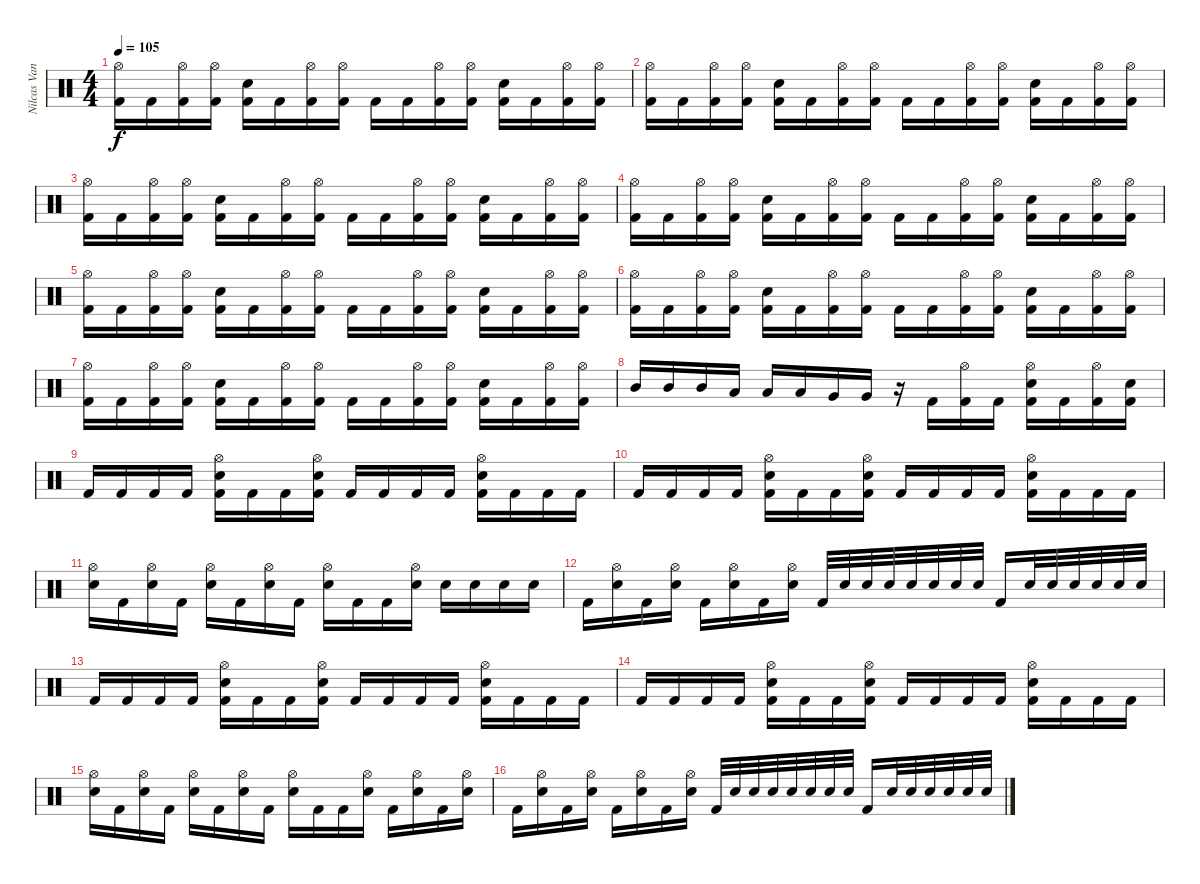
\track ("Nilcas Vant" "Nilcas Van") {instrument percussion}
\staff {score}
\articulation defaults
\ts (4 4)
\tempo 105
\clef neutral
\ks c
("Hi-Hat (open)" "Kick (hit) 2").16{dy f} "Kick (hit) 2".16 ("Hi-Hat (open)" "Kick (hit) 2").16 ("Hi-Hat (open)" "Kick (hit) 2").16 ("Electric Snare (hit)" "Kick (hit) 2").16 "Kick (hit) 2".16 ("Hi-Hat (open)" "Kick (hit) 2").16 ("Hi-Hat (open)" "Kick (hit) 2").16 "Kick (hit) 2".16 "Kick (hit) 2".16 ("Hi-Hat (open)" "Kick (hit) 2").16 ("Hi-Hat (open)" "Kick (hit) 2").16 ("Electric Snare (hit)" "Kick (hit) 2").16 "Kick (hit) 2".16 ("Hi-Hat (open)" "Kick (hit) 2").16 ("Hi-Hat (open)" "Kick (hit) 2").16 |
("Hi-Hat (open)" "Kick (hit) 2").16 "Kick (hit) 2".16 ("Hi-Hat (open)" "Kick (hit) 2").16 ("Hi-Hat (open)" "Kick (hit) 2").16 ("Electric Snare (hit)" "Kick (hit) 2").16 "Kick (hit) 2".16 ("Hi-Hat (open)" "Kick (hit) 2").16 ("Hi-Hat (open)" "Kick (hit) 2").16 "Kick (hit) 2".16 "Kick (hit) 2".16 ("Hi-Hat (open)" "Kick (hit) 2").16 ("Hi-Hat (open)" "Kick (hit) 2").16 ("Electric Snare (hit)" "Kick (hit) 2").16 "Kick (hit) 2".16 ("Hi-Hat (open)" "Kick (hit) 2").16 ("Hi-Hat (open)" "Kick (hit) 2").16 |
("Hi-Hat (open)" "Kick (hit) 2").16 "Kick (hit) 2".16 ("Hi-Hat (open)" "Kick (hit) 2").16 ("Hi-Hat (open)" "Kick (hit) 2").16 ("Electric Snare (hit)" "Kick (hit) 2").16 "Kick (hit) 2".16 ("Hi-Hat (open)" "Kick (hit) 2").16 ("Hi-Hat (open)" "Kick (hit) 2").16 "Kick (hit) 2".16 "Kick (hit) 2".16 ("Hi-Hat (open)" "Kick (hit) 2").16 ("Hi-Hat (open)" "Kick (hit) 2").16 ("Electric Snare (hit)" "Kick (hit) 2").16 "Kick (hit) 2".16 ("Hi-Hat (open)" "Kick (hit) 2").16 ("Hi-Hat (open)" "Kick (hit) 2").16 |
("Hi-Hat (open)" "Kick (hit) 2").16 "Kick (hit) 2".16 ("Hi-Hat (open)" "Kick (hit) 2").16 ("Hi-Hat (open)" "Kick (hit) 2").16 ("Electric Snare (hit)" "Kick (hit) 2").16 "Kick (hit) 2".16 ("Hi-Hat (open)" "Kick (hit) 2").16 ("Hi-Hat (open)" "Kick (hit) 2").16 "Kick (hit) 2".16 "Kick (hit) 2".16 ("Hi-Hat (open)" "Kick (hit) 2").16 ("Hi-Hat (open)" "Kick (hit) 2").16 ("Electric Snare (hit)" "Kick (hit) 2").16 "Kick (hit) 2".16 ("Hi-Hat (open)" "Kick (hit) 2").16 ("Hi-Hat (open)" "Kick (hit) 2").16 |
("Hi-Hat (open)" "Kick (hit) 2").16 "Kick (hit) 2".16 ("Hi-Hat (open)" "Kick (hit) 2").16 ("Hi-Hat (open)" "Kick (hit) 2").16 ("Electric Snare (hit)" "Kick (hit) 2").16 "Kick (hit) 2".16 ("Hi-Hat (open)" "Kick (hit) 2").16 ("Hi-Hat (open)" "Kick (hit) 2").16 "Kick (hit) 2".16 "Kick (hit) 2".16 ("Hi-Hat (open)" "Kick (hit) 2").16 ("Hi-Hat (open)" "Kick (hit) 2").16 ("Electric Snare (hit)" "Kick (hit) 2").16 "Kick (hit) 2".16 ("Hi-Hat (open)" "Kick (hit) 2").16 ("Hi-Hat (open)" "Kick (hit) 2").16 |
("Hi-Hat (open)" "Kick (hit) 2").16 "Kick (hit) 2".16 ("Hi-Hat (open)" "Kick (hit) 2").16 ("Hi-Hat (open)" "Kick (hit) 2").16 ("Electric Snare (hit)" "Kick (hit) 2").16 "Kick (hit) 2".16 ("Hi-Hat (open)" "Kick (hit) 2").16 ("Hi-Hat (open)" "Kick (hit) 2").16 "Kick (hit) 2".16 "Kick (hit) 2".16 ("Hi-Hat (open)" "Kick (hit) 2").16 ("Hi-Hat (open)" "Kick (hit) 2").16 ("Electric Snare (hit)" "Kick (hit) 2").16 "Kick (hit) 2".16 ("Hi-Hat (open)" "Kick (hit) 2").16 ("Hi-Hat (open)" "Kick (hit) 2").16 |
("Hi-Hat (open)" "Kick (hit) 2").16 "Kick (hit) 2".16 ("Hi-Hat (open)" "Kick (hit) 2").16 ("Hi-Hat (open)" "Kick (hit) 2").16 ("Electric Snare (hit)" "Kick (hit) 2").16 "Kick (hit) 2".16 ("Hi-Hat (open)" "Kick (hit) 2").16 ("Hi-Hat (open)" "Kick (hit) 2").16 "Kick (hit) 2".16 "Kick (hit) 2".16 ("Hi-Hat (open)" "Kick (hit) 2").16 ("Hi-Hat (open)" "Kick (hit) 2").16 ("Electric Snare (hit)" "Kick (hit) 2").16 "Kick (hit) 2".16 ("Hi-Hat (open)" "Kick (hit) 2").16 ("Hi-Hat (open)" "Kick (hit) 2").16 |
"Mid Tom (hit)".16 "Mid Tom (hit)".16 "Mid Tom (hit)".16 "Low Tom (hit)".16 "Low Tom (hit)".16 "Low Tom (hit)".16 "Very Low Tom (hit)".16 "Very Low Tom (hit)".16 r.16 "Kick (hit) 2".16 ("Hi-Hat (open)" "Kick (hit) 2").16 "Kick (hit) 2".16 ("Hi-Hat (open)" "Electric Snare (hit)" "Kick (hit) 2").16 "Kick (hit) 2".16 ("Hi-Hat (open)" "Kick (hit) 2").16 ("Electric Snare (hit)" "Kick (hit) 2").16 |
"Kick (hit) 2".16 "Kick (hit) 2".16 "Kick (hit) 2".16 "Kick (hit) 2".16 ("Hi-Hat (open)" "Electric Snare (hit)" "Kick (hit) 2").16 "Kick (hit) 2".16 "Kick (hit) 2".16 ("Hi-Hat (open)" "Electric Snare (hit)" "Kick (hit) 2").16 "Kick (hit) 2".16 "Kick (hit) 2".16 "Kick (hit) 2".16 "Kick (hit) 2".16 ("Hi-Hat (open)" "Electric Snare (hit)" "Kick (hit) 2").16 "Kick (hit) 2".16 "Kick (hit) 2".16 "Kick (hit) 2".16 |
"Kick (hit) 2".16 "Kick (hit) 2".16 "Kick (hit) 2".16 "Kick (hit) 2".16 ("Hi-Hat (open)" "Electric Snare (hit)" "Kick (hit) 2").16 "Kick (hit) 2".16 "Kick (hit) 2".16 ("Hi-Hat (open)" "Electric Snare (hit)" "Kick (hit) 2").16 "Kick (hit) 2".16 "Kick (hit) 2".16 "Kick (hit) 2".16 "Kick (hit) 2".16 ("Hi-Hat (open)" "Electric Snare (hit)" "Kick (hit) 2").16 "Kick (hit) 2".16 "Kick (hit) 2".16 "Kick (hit) 2".16 |
("Hi-Hat (open)" "Electric Snare (hit)").16 "Kick (hit) 2".16 ("Hi-Hat (open)" "Electric Snare (hit)").16 "Kick (hit) 2".16 ("Hi-Hat (open)" "Electric Snare (hit)").16 "Kick (hit) 2".16 ("Hi-Hat (open)" "Electric Snare (hit)").16 "Kick (hit) 2".16 ("Hi-Hat (open)" "Electric Snare (hit)").16 "Kick (hit) 2".16 "Kick (hit) 2".16 ("Hi-Hat (open)" "Electric Snare (hit)").16 "Electric Snare (hit)".16 "Electric Snare (hit)".16 "Electric Snare (hit)".16 "Electric Snare (hit)".16 |
"Kick (hit) 2".16 ("Hi-Hat (open)" "Electric Snare (hit)").16 "Kick (hit) 2".16 ("Hi-Hat (open)" "Electric Snare (hit)").16 "Kick (hit) 2".16 ("Hi-Hat (open)" "Electric Snare (hit)").16 "Kick (hit) 2".16 ("Hi-Hat (open)" "Electric Snare (hit)").16 "Kick (hit) 2".32 "Electric Snare (hit)".32 "Electric Snare (hit)".32 "Electric Snare (hit)".32 "Electric Snare (hit)".32 "Electric Snare (hit)".32 "Electric Snare (hit)".32 "Electric Snare (hit)".32 "Kick (hit) 2".16 "Electric Snare (hit)".32 "Electric Snare (hit)".32 "Electric Snare (hit)".32 "Electric Snare (hit)".32 "Electric Snare (hit)".32 "Electric Snare (hit)".32 |
"Kick (hit) 2".16 "Kick (hit) 2".16 "Kick (hit) 2".16 "Kick (hit) 2".16 ("Hi-Hat (open)" "Electric Snare (hit)" "Kick (hit) 2").16 "Kick (hit) 2".16 "Kick (hit) 2".16 ("Hi-Hat (open)" "Electric Snare (hit)" "Kick (hit) 2").16 "Kick (hit) 2".16 "Kick (hit) 2".16 "Kick (hit) 2".16 "Kick (hit) 2".16 ("Hi-Hat (open)" "Electric Snare (hit)" "Kick (hit) 2").16 "Kick (hit) 2".16 "Kick (hit) 2".16 "Kick (hit) 2".16 |
"Kick (hit) 2".16 "Kick (hit) 2".16 "Kick (hit) 2".16 "Kick (hit) 2".16 ("Hi-Hat (open)" "Electric Snare (hit)" "Kick (hit) 2").16 "Kick (hit) 2".16 "Kick (hit) 2".16 ("Hi-Hat (open)" "Electric Snare (hit)" "Kick (hit) 2").16 "Kick (hit) 2".16 "Kick (hit) 2".16 "Kick (hit) 2".16 "Kick (hit) 2".16 ("Hi-Hat (open)" "Electric Snare (hit)" "Kick (hit) 2").16 "Kick (hit) 2".16 "Kick (hit) 2".16 "Kick (hit) 2".16 |
("Hi-Hat (open)" "Electric Snare (hit)").16 "Kick (hit) 2".16 ("Hi-Hat (open)" "Electric Snare (hit)").16 "Kick (hit) 2".16 ("Hi-Hat (open)" "Electric Snare (hit)").16 "Kick (hit) 2".16 ("Hi-Hat (open)" "Electric Snare (hit)").16 "Kick (hit) 2".16 ("Hi-Hat (open)" "Electric Snare (hit)").16 "Kick (hit) 2".16 "Kick (hit) 2".16 ("Hi-Hat (open)" "Electric Snare (hit)").16 "Kick (hit) 2".16 ("Hi-Hat (open)" "Electric Snare (hit)").16 "Kick (hit) 2".16 ("Hi-Hat (open)" "Electric Snare (hit)").16 |
"Kick (hit) 2".16 ("Hi-Hat (open)" "Electric Snare (hit)").16 "Kick (hit) 2".16 ("Hi-Hat (open)" "Electric Snare (hit)").16 "Kick (hit) 2".16 ("Hi-Hat (open)" "Electric Snare (hit)").16 "Kick (hit) 2".16 ("Hi-Hat (open)" "Electric Snare (hit)").16 "Kick (hit) 2".32 "Electric Snare (hit)".32 "Electric Snare (hit)".32 "Electric Snare (hit)".32 "Electric Snare (hit)".32 "Electric Snare (hit)".32 "Electric Snare (hit)".32 "Electric Snare (hit)".32 "Kick (hit) 2".16 "Electric Snare (hit)".32 "Electric Snare (hit)".32 "Electric Snare (hit)".32 "Electric Snare (hit)".32 "Electric Snare (hit)".32 "Electric Snare (hit)".32
